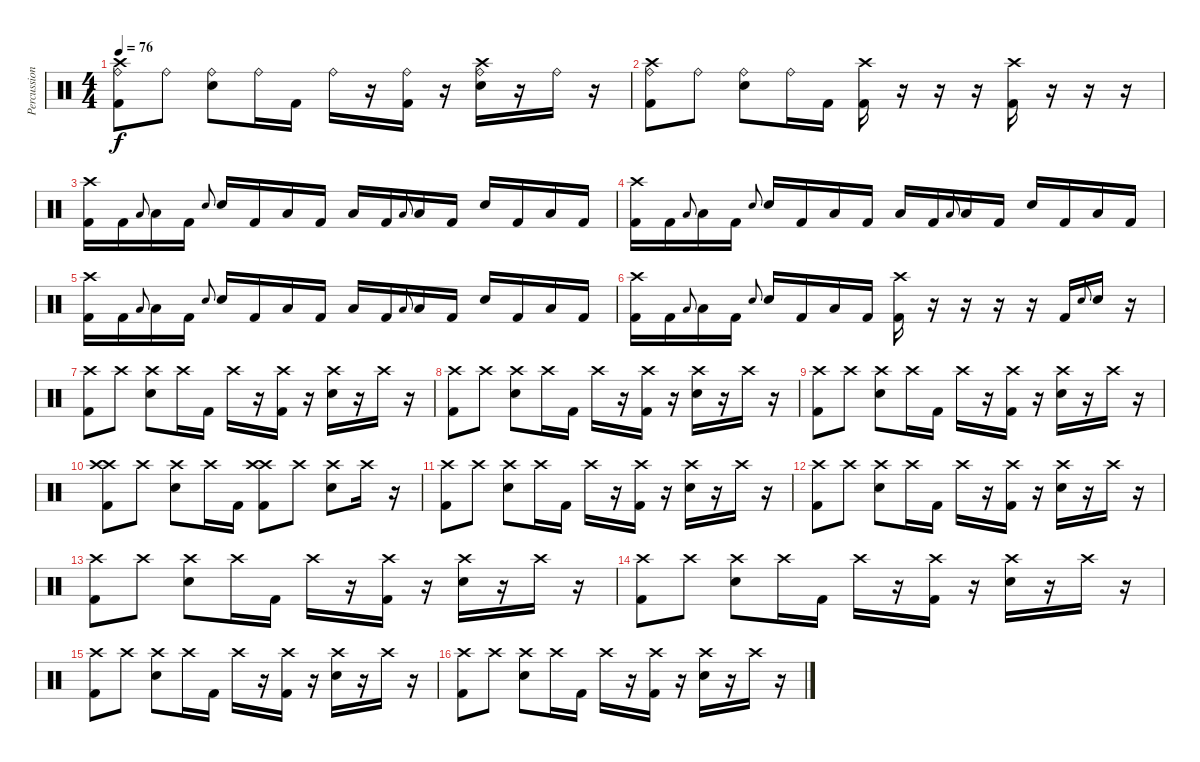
\track ("Percussion" "Percussion") {instrument percussion}
\staff {score}
\articulation defaults
\ts (4 4)
\tempo 76
\clef neutral
\ks c
("Crash high (hit)" "Ride (bell)" "Kick (hit) 2").8{dy f volume 13} "Ride (bell)".8 ("Ride (bell)" "Electric Snare (hit)").8 "Ride (bell)".16 "Kick (hit) 2".16 "Ride (bell)".16 r.16 ("Ride (bell)" "Kick (hit) 2").16 r.16 ("Crash high (hit)" "Ride (bell)" "Electric Snare (hit)").16 r.16 "Ride (bell)".16 r.16 |
("Crash high (hit)" "Ride (bell)" "Kick (hit) 2").8{volume 13} "Ride (bell)".8 ("Ride (bell)" "Electric Snare (hit)").8 "Ride (bell)".16 "Kick (hit) 2".16 ("Crash high (hit)" "Kick (hit) 2").16 r.16 r.16{volume 0} r.16 ("Crash high (hit)" "Kick (hit) 2").16{volume 13} r.16 r.16{volume 0} r.16 |
("Crash high (hit)" "Kick (hit) 2").16{volume 13} "Kick (hit) 2".16 "Low Floor Tom (hit)".8{gr onbeat} "Low Floor Tom (hit)".16 "Kick (hit) 2".16 "Electric Snare (hit)".8{gr onbeat} "Electric Snare (hit)".16 "Kick (hit) 2".16 "Low Floor Tom (hit)".16 "Kick (hit) 2".16 "Low Floor Tom (hit)".16 "Kick (hit) 2".16 "Low Floor Tom (hit)".8{gr onbeat} "Low Floor Tom (hit)".16 "Kick (hit) 2".16 "Electric Snare (hit)".16 "Kick (hit) 2".16 "Low Floor Tom (hit)".16 "Kick (hit) 2".16 |
("Crash high (hit)" "Kick (hit) 2").16{volume 13} "Kick (hit) 2".16 "Low Floor Tom (hit)".8{gr onbeat} "Low Floor Tom (hit)".16 "Kick (hit) 2".16 "Electric Snare (hit)".8{gr onbeat} "Electric Snare (hit)".16 "Kick (hit) 2".16 "Low Floor Tom (hit)".16 "Kick (hit) 2".16 "Low Floor Tom (hit)".16 "Kick (hit) 2".16 "Low Floor Tom (hit)".8{gr onbeat} "Low Floor Tom (hit)".16 "Kick (hit) 2".16 "Electric Snare (hit)".16 "Kick (hit) 2".16 "Low Floor Tom (hit)".16 "Kick (hit) 2".16 |
("Crash high (hit)" "Kick (hit) 2").16{volume 13} "Kick (hit) 2".16 "Low Floor Tom (hit)".8{gr onbeat} "Low Floor Tom (hit)".16 "Kick (hit) 2".16 "Electric Snare (hit)".8{gr onbeat} "Electric Snare (hit)".16 "Kick (hit) 2".16 "Low Floor Tom (hit)".16 "Kick (hit) 2".16 "Low Floor Tom (hit)".16 "Kick (hit) 2".16 "Low Floor Tom (hit)".8{gr onbeat} "Low Floor Tom (hit)".16 "Kick (hit) 2".16 "Electric Snare (hit)".16 "Kick (hit) 2".16 "Low Floor Tom (hit)".16 "Kick (hit) 2".16 |
("Crash high (hit)" "Kick (hit) 2").16{volume 13} "Kick (hit) 2".16 "Low Floor Tom (hit)".8{gr onbeat} "Low Floor Tom (hit)".16 "Kick (hit) 2".16 "Electric Snare (hit)".8{gr onbeat} "Electric Snare (hit)".16 "Kick (hit) 2".16 "Low Floor Tom (hit)".16 "Kick (hit) 2".16 ("Crash high (hit)" "Kick (hit) 2").16 r.16{volume 0} r.16 r.16 r.16 "Kick (hit) 2".16{volume 13} "Electric Snare (hit)".8{gr onbeat} "Electric Snare (hit)".16 r.16 |
("Crash high (hit)" "Kick (hit) 2").8{volume 13} "Crash high (hit)".8 ("Crash high (hit)" "Electric Snare (hit)").8 "Crash high (hit)".16 "Kick (hit) 2".16 "Crash high (hit)".16 r.16 ("Crash high (hit)" "Kick (hit) 2").16 r.16 ("Crash high (hit)" "Electric Snare (hit)").16 r.16 "Crash high (hit)".16 r.16 |
("Crash high (hit)" "Kick (hit) 2").8{volume 13} "Crash high (hit)".8 ("Crash high (hit)" "Electric Snare (hit)").8 "Crash high (hit)".16 "Kick (hit) 2".16 "Crash high (hit)".16 r.16 ("Crash high (hit)" "Kick (hit) 2").16 r.16 ("Crash high (hit)" "Electric Snare (hit)").16 r.16 "Crash high (hit)".16 r.16 |
("Crash high (hit)" "Kick (hit) 2").8{volume 13} "Crash high (hit)".8 ("Crash high (hit)" "Electric Snare (hit)").8 "Crash high (hit)".16 "Kick (hit) 2".16 "Crash high (hit)".16 r.16 ("Crash high (hit)" "Kick (hit) 2").16 r.16 ("Crash high (hit)" "Electric Snare (hit)").16 r.16 "Crash high (hit)".16 r.16 |
("Crash high (hit)" "Crash high (hit)" "Kick (hit) 2").8{volume 13} "Crash high (hit)".8 ("Crash high (hit)" "Electric Snare (hit)").8 "Crash high (hit)".16 "Kick (hit) 2".16 ("Crash high (hit)" "Crash high (hit)" "Kick (hit) 2").8{volume 13} "Crash high (hit)".8 ("Crash high (hit)" "Electric Snare (hit)").8 "Crash high (hit)".16 r.16 |
("Crash high (hit)" "Kick (hit) 2").8{volume 13} "Crash high (hit)".8 ("Crash high (hit)" "Electric Snare (hit)").8 "Crash high (hit)".16 "Kick (hit) 2".16 "Crash high (hit)".16 r.16 ("Crash high (hit)" "Kick (hit) 2").16 r.16 ("Crash high (hit)" "Electric Snare (hit)").16 r.16 "Crash high (hit)".16 r.16 |
("Crash high (hit)" "Kick (hit) 2").8{volume 13} "Crash high (hit)".8 ("Crash high (hit)" "Electric Snare (hit)").8 "Crash high (hit)".16 "Kick (hit) 2".16 "Crash high (hit)".16 r.16 ("Crash high (hit)" "Kick (hit) 2").16 r.16 ("Crash high (hit)" "Electric Snare (hit)").16 r.16 "Crash high (hit)".16 r.16 |
("Crash high (hit)" "Kick (hit) 2").8{volume 13} "Crash high (hit)".8 ("Crash high (hit)" "Electric Snare (hit)").8 "Crash high (hit)".16 "Kick (hit) 2".16 "Crash high (hit)".16 r.16 ("Crash high (hit)" "Kick (hit) 2").16 r.16 ("Crash high (hit)" "Electric Snare (hit)").16 r.16 "Crash high (hit)".16 r.16 |
("Crash high (hit)" "Kick (hit) 2").8{volume 13} "Crash high (hit)".8 ("Crash high (hit)" "Electric Snare (hit)").8 "Crash high (hit)".16 "Kick (hit) 2".16 "Crash high (hit)".16 r.16 ("Crash high (hit)" "Kick (hit) 2").16 r.16 ("Crash high (hit)" "Electric Snare (hit)").16 r.16 "Crash high (hit)".16 r.16 |
("Crash high (hit)" "Kick (hit) 2").8 "Crash high (hit)".8 ("Crash high (hit)" "Electric Snare (hit)").8 "Crash high (hit)".16 "Kick (hit) 2".16 "Crash high (hit)".16 r.16 ("Crash high (hit)" "Kick (hit) 2").16 r.16 ("Crash high (hit)" "Electric Snare (hit)").16 r.16 "Crash high (hit)".16 r.16 |
("Crash high (hit)" "Kick (hit) 2").8{volume 13} "Crash high (hit)".8 ("Crash high (hit)" "Electric Snare (hit)").8 "Crash high (hit)".16 "Kick (hit) 2".16 "Crash high (hit)".16 r.16 ("Crash high (hit)" "Kick (hit) 2").16 r.16 ("Crash high (hit)" "Electric Snare (hit)").16 r.16 "Crash high (hit)".16 r.16
